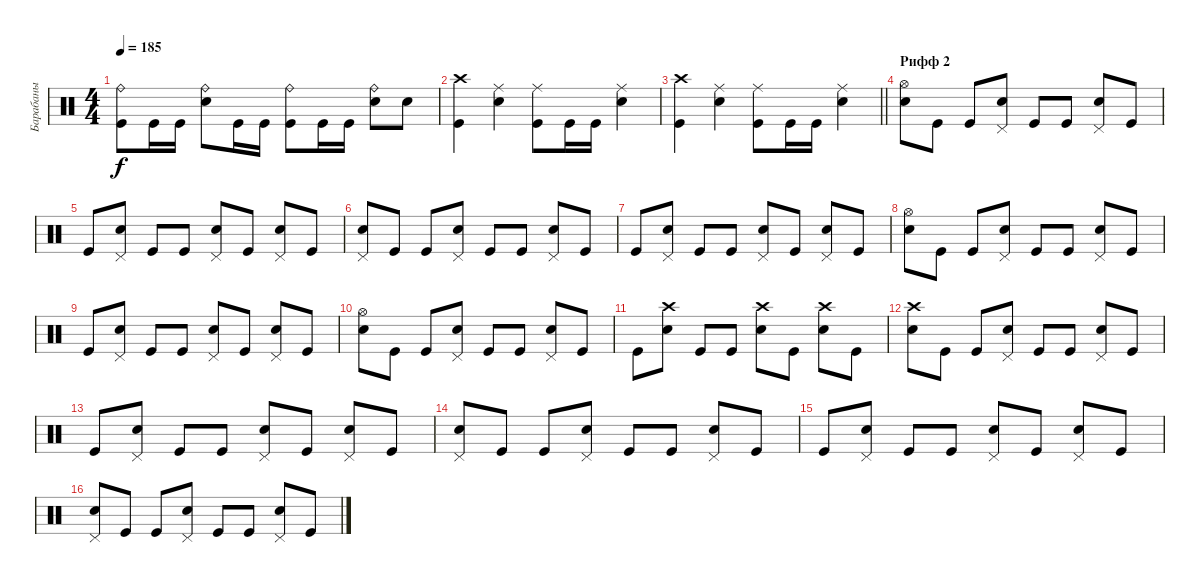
\track ("Барабаны" "Барабаны") {instrument percussion}
\staff {score}
\articulation defaults
\ts (4 4)
\tempo 185
\clef neutral
\ks c
("Kick (hit)" "Ride (bell)").8{dy f} "Kick (hit)".16 "Kick (hit)".16 ("Snare (hit) 2" "Ride (bell)").8 "Kick (hit)".16 "Kick (hit)".16 ("Kick (hit)" "Ride (bell)").8 "Kick (hit)".16 "Kick (hit)".16 ("Snare (hit) 2" "Ride (bell)").8 "Snare (hit) 2".8 |
("Kick (hit)" "Crash high (hit)").4 ("Snare (hit) 2" "Ride (middle)").4 ("Kick (hit)" "Ride (middle)").8 "Kick (hit)".16 "Kick (hit)".16 ("Snare (hit) 2" "Ride (middle)").4 |
\barLineRight lightlight
("Kick (hit)" "Crash high (hit)").4 ("Snare (hit) 2" "Ride (middle)").4 ("Kick (hit)" "Ride (middle)").8 "Kick (hit)".16 "Kick (hit)".16 ("Snare (hit) 2" "Ride (middle)").4 |
\section ("" "Рифф 2")
("Snare (hit) 2" "Hi-Hat (open)").8 "Kick (hit)".8 "Kick (hit)".8 ("Snare (hit) 2" "Pedal Hi-Hat (hit)").8 "Kick (hit)".8 "Kick (hit)".8 ("Snare (hit) 2" "Pedal Hi-Hat (hit)").8 "Kick (hit)".8 |
"Kick (hit)".8 ("Snare (hit) 2" "Pedal Hi-Hat (hit)").8 "Kick (hit)".8 "Kick (hit)".8 ("Snare (hit) 2" "Pedal Hi-Hat (hit)").8 "Kick (hit)".8 ("Snare (hit) 2" "Pedal Hi-Hat (hit)").8 "Kick (hit)".8 |
("Snare (hit) 2" "Pedal Hi-Hat (hit)").8 "Kick (hit)".8 "Kick (hit)".8 ("Snare (hit) 2" "Pedal Hi-Hat (hit)").8 "Kick (hit)".8 "Kick (hit)".8 ("Snare (hit) 2" "Pedal Hi-Hat (hit)").8 "Kick (hit)".8 |
"Kick (hit)".8 ("Snare (hit) 2" "Pedal Hi-Hat (hit)").8 "Kick (hit)".8 "Kick (hit)".8 ("Snare (hit) 2" "Pedal Hi-Hat (hit)").8 "Kick (hit)".8 ("Snare (hit) 2" "Pedal Hi-Hat (hit)").8 "Kick (hit)".8 |
("Snare (hit) 2" "Hi-Hat (open)").8 "Kick (hit)".8 "Kick (hit)".8 ("Snare (hit) 2" "Pedal Hi-Hat (hit)").8 "Kick (hit)".8 "Kick (hit)".8 ("Snare (hit) 2" "Pedal Hi-Hat (hit)").8 "Kick (hit)".8 |
"Kick (hit)".8 ("Snare (hit) 2" "Pedal Hi-Hat (hit)").8 "Kick (hit)".8 "Kick (hit)".8 ("Snare (hit) 2" "Pedal Hi-Hat (hit)").8 "Kick (hit)".8 ("Snare (hit) 2" "Pedal Hi-Hat (hit)").8 "Kick (hit)".8 |
("Snare (hit) 2" "Hi-Hat (open)").8 "Kick (hit)".8 "Kick (hit)".8 ("Snare (hit) 2" "Pedal Hi-Hat (hit)").8 "Kick (hit)".8 "Kick (hit)".8 ("Snare (hit) 2" "Pedal Hi-Hat (hit)").8 "Kick (hit)".8 |
"Kick (hit)".8 ("Snare (hit) 2" "Crash high (hit)").8 "Kick (hit)".8 "Kick (hit)".8 ("Snare (hit) 2" "Crash high (hit)").8 "Kick (hit)".8 ("Snare (hit) 2" "Crash high (hit)").8 "Kick (hit)".8 |
("Snare (hit) 2" "Crash high (hit)").8 "Kick (hit)".8 "Kick (hit)".8 ("Snare (hit) 2" "Pedal Hi-Hat (hit)").8 "Kick (hit)".8 "Kick (hit)".8 ("Snare (hit) 2" "Pedal Hi-Hat (hit)").8 "Kick (hit)".8 |
"Kick (hit)".8 ("Snare (hit) 2" "Pedal Hi-Hat (hit)").8 "Kick (hit)".8 "Kick (hit)".8 ("Snare (hit) 2" "Pedal Hi-Hat (hit)").8 "Kick (hit)".8 ("Snare (hit) 2" "Pedal Hi-Hat (hit)").8 "Kick (hit)".8 |
("Snare (hit) 2" "Pedal Hi-Hat (hit)").8 "Kick (hit)".8 "Kick (hit)".8 ("Snare (hit) 2" "Pedal Hi-Hat (hit)").8 "Kick (hit)".8 "Kick (hit)".8 ("Snare (hit) 2" "Pedal Hi-Hat (hit)").8 "Kick (hit)".8 |
"Kick (hit)".8 ("Snare (hit) 2" "Pedal Hi-Hat (hit)").8 "Kick (hit)".8 "Kick (hit)".8 ("Snare (hit) 2" "Pedal Hi-Hat (hit)").8 "Kick (hit)".8 ("Snare (hit) 2" "Pedal Hi-Hat (hit)").8 "Kick (hit)".8 |
("Snare (hit) 2" "Pedal Hi-Hat (hit)").8 "Kick (hit)".8 "Kick (hit)".8 ("Snare (hit) 2" "Pedal Hi-Hat (hit)").8 "Kick (hit)".8 "Kick (hit)".8 ("Snare (hit) 2" "Pedal Hi-Hat (hit)").8 "Kick (hit)".8
